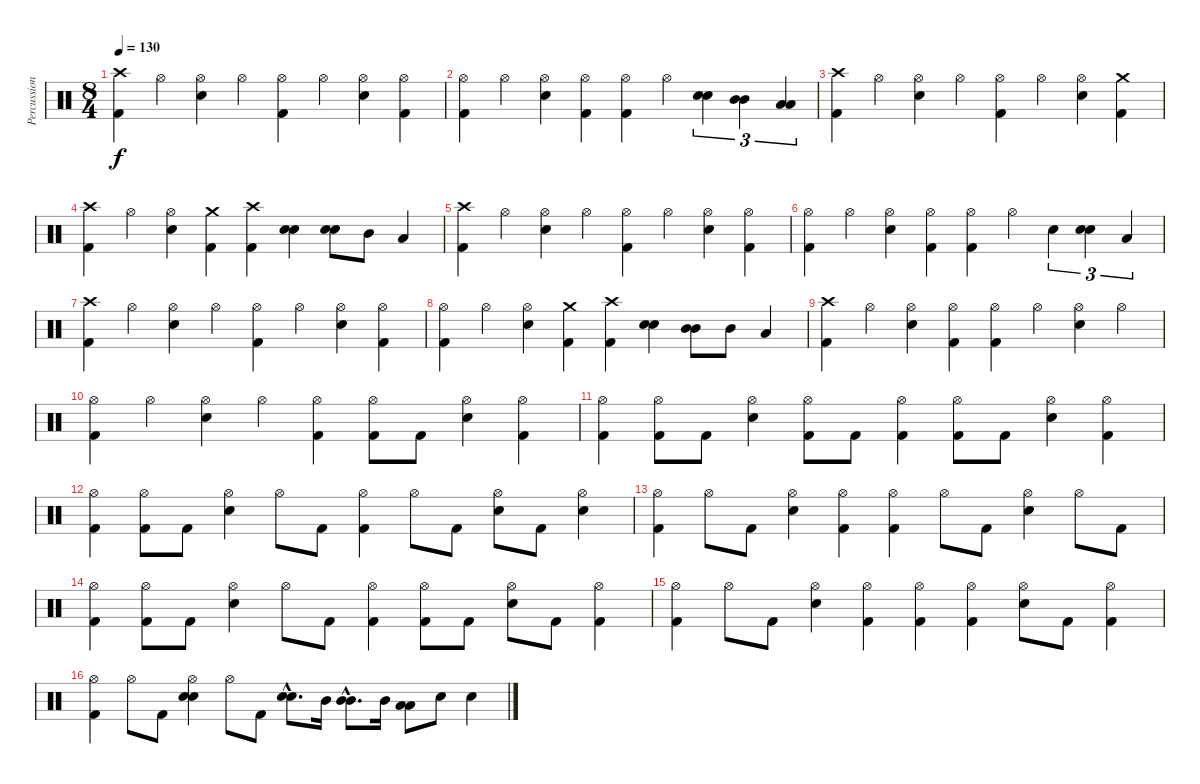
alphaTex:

\track ("Percussion" "Percussion") {instrument percussion}
\staff {score}
\articulation defaults
\ts (8 4)
\tempo 130
\clef neutral
\ks c
("Crash high (hit)" "Kick (hit) 2").4{dy f} "Hi-Hat (open)".4 ("Hi-Hat (open)" "Electric Snare (hit)").4 "Hi-Hat (open)".4 ("Hi-Hat (open)" "Kick (hit) 2").4 "Hi-Hat (open)".4 ("Hi-Hat (open)" "Electric Snare (hit)").4 ("Hi-Hat (open)" "Kick (hit) 2").4 |
("Hi-Hat (open)" "Kick (hit) 2").4 "Hi-Hat (open)".4 ("Hi-Hat (open)" "Electric Snare (hit)").4 ("Hi-Hat (open)" "Kick (hit) 2").4 ("Hi-Hat (open)" "Kick (hit) 2").4 "Hi-Hat (open)".4 ("Electric Snare (hit)" "Electric Snare (hit)").4{tu (3 2) bu 60} ("Mid Tom (hit)" "Mid Tom (hit)").4{tu (3 2) bu 60} ("Low Tom (hit)" "Low Tom (hit)").4{tu (3 2) bu 60} |
("Crash high (hit)" "Kick (hit) 2").4 "Hi-Hat (open)".4 ("Hi-Hat (open)" "Electric Snare (hit)").4 "Hi-Hat (open)".4 ("Hi-Hat (open)" "Kick (hit) 2").4 "Hi-Hat (open)".4 ("Hi-Hat (open)" "Electric Snare (hit)").4 ("Crash medium (hit)" "Kick (hit) 2").4 |
("Crash high (hit)" "Kick (hit) 2").4 "Hi-Hat (open)".4 ("Hi-Hat (open)" "Electric Snare (hit)").4 ("Crash medium (hit)" "Kick (hit) 2").4 ("Crash high (hit)" "Kick (hit) 2").4 ("Electric Snare (hit)" "Electric Snare (hit)").4{bu 60} ("Electric Snare (hit)" "Electric Snare (hit)").8{bu 60} "Mid Tom (hit)".8 "Low Tom (hit)".4 |
("Crash high (hit)" "Kick (hit) 2").4 "Hi-Hat (open)".4 ("Hi-Hat (open)" "Electric Snare (hit)").4 "Hi-Hat (open)".4 ("Hi-Hat (open)" "Kick (hit) 2").4 "Hi-Hat (open)".4 ("Hi-Hat (open)" "Electric Snare (hit)").4 ("Hi-Hat (open)" "Kick (hit) 2").4 |
("Hi-Hat (open)" "Kick (hit) 2").4 "Hi-Hat (open)".4 ("Hi-Hat (open)" "Electric Snare (hit)").4 ("Hi-Hat (open)" "Kick (hit) 2").4 ("Hi-Hat (open)" "Kick (hit) 2").4 "Hi-Hat (open)".4 "Electric Snare (hit)".4{tu (3 2)} ("Electric Snare (hit)" "Electric Snare (hit)").4{tu (3 2) bu 60} "Low Tom (hit)".4{tu (3 2)} |
("Crash high (hit)" "Kick (hit) 2").4 "Hi-Hat (open)".4 ("Hi-Hat (open)" "Electric Snare (hit)").4 "Hi-Hat (open)".4 ("Hi-Hat (open)" "Kick (hit) 2").4 "Hi-Hat (open)".4 ("Hi-Hat (open)" "Electric Snare (hit)").4 ("Hi-Hat (open)" "Kick (hit) 2").4 |
("Hi-Hat (open)" "Kick (hit) 2").4 "Hi-Hat (open)".4 ("Hi-Hat (open)" "Electric Snare (hit)").4 ("Crash medium (hit)" "Kick (hit) 2").4 ("Crash high (hit)" "Kick (hit) 2").4 ("Electric Snare (hit)" "Electric Snare (hit)").4{bu 60} ("Mid Tom (hit)" "Mid Tom (hit)").8{bu 60} "Mid Tom (hit)".8 "Low Tom (hit)".4 |
("Crash high (hit)" "Kick (hit) 2").4 "Hi-Hat (open)".4 ("Hi-Hat (open)" "Electric Snare (hit)").4 ("Hi-Hat (open)" "Kick (hit) 2").4 ("Hi-Hat (open)" "Kick (hit) 2").4 "Hi-Hat (open)".4 ("Hi-Hat (open)" "Electric Snare (hit)").4 "Hi-Hat (open)".4 |
("Hi-Hat (open)" "Kick (hit) 2").4 "Hi-Hat (open)".4 ("Hi-Hat (open)" "Electric Snare (hit)").4 "Hi-Hat (open)".4 ("Hi-Hat (open)" "Kick (hit) 2").4 ("Hi-Hat (open)" "Kick (hit) 2").8 "Kick (hit) 2".8 ("Hi-Hat (open)" "Electric Snare (hit)").4 ("Hi-Hat (open)" "Kick (hit) 2").4 |
("Hi-Hat (open)" "Kick (hit) 2").4 ("Hi-Hat (open)" "Kick (hit) 2").8 "Kick (hit) 2".8 ("Hi-Hat (open)" "Electric Snare (hit)").4 ("Hi-Hat (open)" "Kick (hit) 2").8 "Kick (hit) 2".8 ("Hi-Hat (open)" "Kick (hit) 2").4 ("Hi-Hat (open)" "Kick (hit) 2").8 "Kick (hit) 2".8 ("Hi-Hat (open)" "Electric Snare (hit)").4 ("Hi-Hat (open)" "Kick (hit) 2").4 |
("Hi-Hat (open)" "Kick (hit) 2").4 ("Hi-Hat (open)" "Kick (hit) 2").8 "Kick (hit) 2".8 ("Hi-Hat (open)" "Electric Snare (hit)").4 "Hi-Hat (open)".8 "Kick (hit) 2".8 ("Hi-Hat (open)" "Kick (hit) 2").4 "Hi-Hat (open)".8 "Kick (hit) 2".8 ("Hi-Hat (open)" "Electric Snare (hit)").8 "Kick (hit) 2".8 ("Hi-Hat (open)" "Electric Snare (hit)").4 |
("Hi-Hat (open)" "Kick (hit) 2").4 "Hi-Hat (open)".8 "Kick (hit) 2".8 ("Hi-Hat (open)" "Electric Snare (hit)").4 ("Hi-Hat (open)" "Kick (hit) 2").4 ("Hi-Hat (open)" "Kick (hit) 2").4 "Hi-Hat (open)".8 "Kick (hit) 2".8 ("Hi-Hat (open)" "Electric Snare (hit)").4 "Hi-Hat (open)".8 "Kick (hit) 2".8 |
("Hi-Hat (open)" "Kick (hit) 2").4 ("Hi-Hat (open)" "Kick (hit) 2").8 "Kick (hit) 2".8 ("Hi-Hat (open)" "Electric Snare (hit)").4 "Hi-Hat (open)".8 "Kick (hit) 2".8 ("Hi-Hat (open)" "Kick (hit) 2").4 ("Hi-Hat (open)" "Kick (hit) 2").8 "Kick (hit) 2".8 ("Hi-Hat (open)" "Electric Snare (hit)").8 "Kick (hit) 2".8 ("Hi-Hat (open)" "Kick (hit) 2").4 |
("Hi-Hat (open)" "Kick (hit) 2").4 "Hi-Hat (open)".8 "Kick (hit) 2".8 ("Hi-Hat (open)" "Electric Snare (hit)").4 ("Hi-Hat (open)" "Kick (hit) 2").4 ("Hi-Hat (open)" "Kick (hit) 2").4 ("Hi-Hat (open)" "Kick (hit) 2").4 ("Hi-Hat (open)" "Electric Snare (hit)").8 "Kick (hit) 2".8 ("Hi-Hat (open)" "Kick (hit) 2").4 |
("Hi-Hat (open)" "Kick (hit) 2").4 "Hi-Hat (open)".8 "Kick (hit) 2".8 ("Hi-Hat (open)" "Electric Snare (hit)" "Electric Snare (hit)").4{bu 60} "Hi-Hat (open)".8 "Kick (hit) 2".8 ("Electric Snare (hit)"{hac} "Electric Snare (hit)"{hac}).8{d bu 60} "Mid Tom (hit)".16 ("Mid Tom (hit)"{hac} "Mid Tom (hit)"{hac}).8{d bu 60} "Mid Tom (hit)".16 ("Low Tom (hit)" "Low Tom (hit)").8{bu 60} "Electric Snare (hit)".8 "Electric Snare (hit)".4
